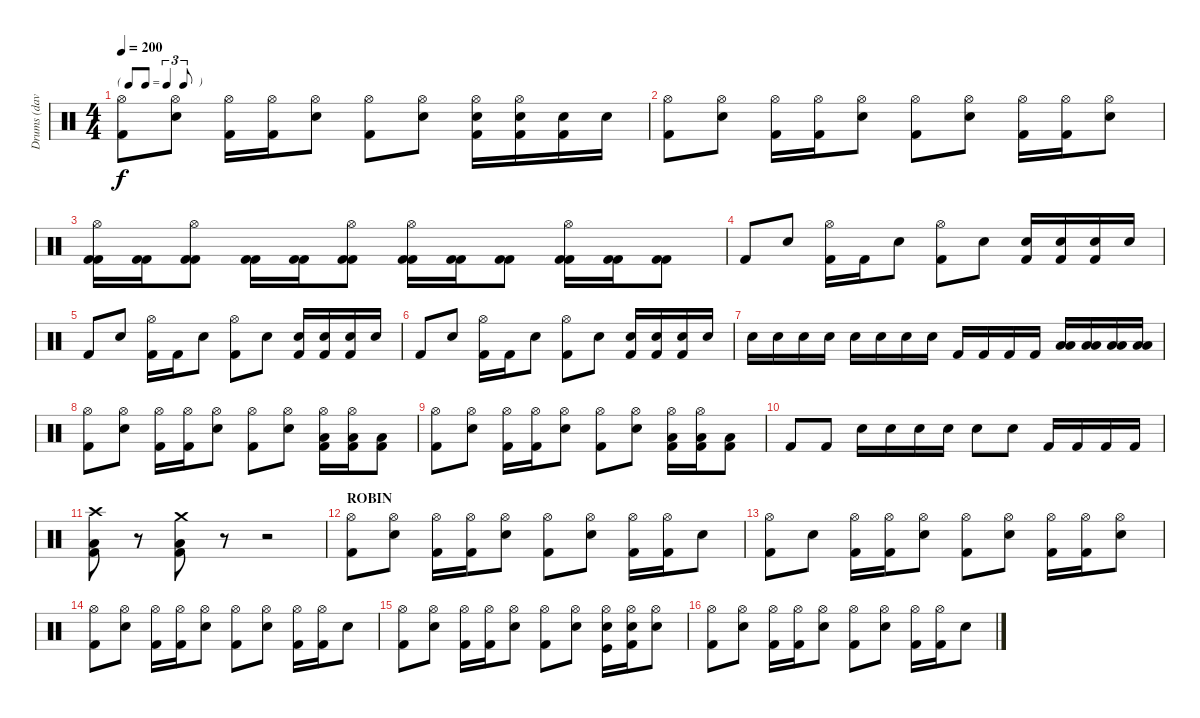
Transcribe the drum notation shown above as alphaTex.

\track ("Drums (dave)" "Drums (dav") {instrument percussion}
\staff {score}
\articulation defaults
\ts (4 4)
\tf triplet8th
\tempo 200
\clef neutral
\ks c
("Hi-Hat (open)" "Kick (hit) 2").8{dy f} ("Hi-Hat (open)" "Snare (hit) 2").8 ("Hi-Hat (open)" "Kick (hit) 2").16 ("Hi-Hat (open)" "Kick (hit) 2").16 ("Hi-Hat (open)" "Snare (hit) 2").8 ("Hi-Hat (open)" "Kick (hit) 2").8 ("Hi-Hat (open)" "Snare (hit) 2").8 ("Hi-Hat (open)" "Snare (hit) 2" "Kick (hit) 2").16 ("Hi-Hat (open)" "Snare (hit) 2" "Kick (hit) 2").16 ("Snare (hit) 2" "Kick (hit) 2").16 "Snare (hit) 2".16 |
("Hi-Hat (open)" "Kick (hit) 2").8 ("Hi-Hat (open)" "Snare (hit) 2").8 ("Hi-Hat (open)" "Kick (hit) 2").16 ("Hi-Hat (open)" "Kick (hit) 2").16 ("Hi-Hat (open)" "Snare (hit) 2").8 ("Hi-Hat (open)" "Kick (hit) 2").8 ("Hi-Hat (open)" "Snare (hit) 2").8 ("Hi-Hat (open)" "Kick (hit) 2").16 ("Hi-Hat (open)" "Kick (hit) 2").16 ("Hi-Hat (open)" "Snare (hit) 2").8 |
("Hi-Hat (open)" "Kick (hit) 2" "Kick (hit) 2").16 ("Kick (hit) 2" "Kick (hit) 2").16 ("Hi-Hat (open)" "Kick (hit) 2" "Kick (hit) 2").8 ("Kick (hit) 2" "Kick (hit) 2").16 ("Kick (hit) 2" "Kick (hit) 2").16 ("Hi-Hat (open)" "Kick (hit) 2" "Kick (hit) 2").8 ("Hi-Hat (open)" "Kick (hit) 2" "Kick (hit) 2").16 ("Kick (hit) 2" "Kick (hit) 2").16 ("Kick (hit) 2" "Kick (hit) 2").8 ("Hi-Hat (open)" "Kick (hit) 2" "Kick (hit) 2").16 ("Kick (hit) 2" "Kick (hit) 2").16 ("Kick (hit) 2" "Kick (hit) 2").8 |
"Kick (hit) 2".8 "Snare (hit) 2".8 ("Hi-Hat (open)" "Kick (hit) 2").16 "Kick (hit) 2".16 "Snare (hit) 2".8 ("Hi-Hat (open)" "Kick (hit) 2").8 "Snare (hit) 2".8 ("Snare (hit) 2" "Kick (hit) 2").16 ("Snare (hit) 2" "Kick (hit) 2").16 ("Snare (hit) 2" "Kick (hit) 2").16 "Snare (hit) 2".16 |
"Kick (hit) 2".8 "Snare (hit) 2".8 ("Hi-Hat (open)" "Kick (hit) 2").16 "Kick (hit) 2".16 "Snare (hit) 2".8 ("Hi-Hat (open)" "Kick (hit) 2").8 "Snare (hit) 2".8 ("Snare (hit) 2" "Kick (hit) 2").16 ("Snare (hit) 2" "Kick (hit) 2").16 ("Snare (hit) 2" "Kick (hit) 2").16 "Snare (hit) 2".16 |
"Kick (hit) 2".8 "Snare (hit) 2".8 ("Hi-Hat (open)" "Kick (hit) 2").16 "Kick (hit) 2".16 "Snare (hit) 2".8 ("Hi-Hat (open)" "Kick (hit) 2").8 "Snare (hit) 2".8 ("Snare (hit) 2" "Kick (hit) 2").16 ("Snare (hit) 2" "Kick (hit) 2").16 ("Snare (hit) 2" "Kick (hit) 2").16 "Snare (hit) 2".16 |
"Snare (hit) 2".16 "Snare (hit) 2".16 "Snare (hit) 2".16 "Snare (hit) 2".16 "Snare (hit) 2".16 "Snare (hit) 2".16 "Snare (hit) 2".16 "Snare (hit) 2".16 "Kick (hit) 2".16 "Kick (hit) 2".16 "Kick (hit) 2".16 "Kick (hit) 2".16 ("Low Floor Tom (hit)" "Low Floor Tom (hit)").16 ("Low Floor Tom (hit)" "Low Floor Tom (hit)").16 ("Low Floor Tom (hit)" "Low Floor Tom (hit)").16 ("Low Floor Tom (hit)" "Low Floor Tom (hit)").16 |
("Hi-Hat (open)" "Kick (hit) 2").8 ("Hi-Hat (open)" "Snare (hit) 2").8 ("Hi-Hat (open)" "Kick (hit) 2").16 ("Hi-Hat (open)" "Kick (hit) 2").16 ("Hi-Hat (open)" "Snare (hit) 2").8 ("Hi-Hat (open)" "Kick (hit) 2").8 ("Hi-Hat (open)" "Snare (hit) 2").8 ("Hi-Hat (open)" "Low Floor Tom (hit)" "Kick (hit) 2").16 ("Hi-Hat (open)" "Low Floor Tom (hit)" "Kick (hit) 2").16 ("Low Floor Tom (hit)" "Kick (hit) 2").8 |
("Hi-Hat (open)" "Kick (hit) 2").8 ("Hi-Hat (open)" "Snare (hit) 2").8 ("Hi-Hat (open)" "Kick (hit) 2").16 ("Hi-Hat (open)" "Kick (hit) 2").16 ("Hi-Hat (open)" "Snare (hit) 2").8 ("Hi-Hat (open)" "Kick (hit) 2").8 ("Hi-Hat (open)" "Snare (hit) 2").8 ("Hi-Hat (open)" "Low Floor Tom (hit)" "Kick (hit) 2").16 ("Hi-Hat (open)" "Low Floor Tom (hit)" "Kick (hit) 2").16 ("Low Floor Tom (hit)" "Kick (hit) 2").8 |
"Kick (hit) 2".8 "Kick (hit) 2".8 "Snare (hit) 2".16 "Snare (hit) 2".16 "Snare (hit) 2".16 "Snare (hit) 2".16 "Snare (hit) 2".8 "Snare (hit) 2".8 "Kick (hit) 2".16 "Kick (hit) 2".16 "Kick (hit) 2".16 "Kick (hit) 2".16 |
("Crash high (hit)" "Kick (hit) 2" "Low Floor Tom (hit)").8 r.8 ("Crash medium (hit)" "Kick (hit) 2" "Low Floor Tom (hit)").8 r.8 r.2 |
\section ("" "ROBIN")
("Hi-Hat (open)" "Kick (hit) 2").8 ("Hi-Hat (open)" "Snare (hit) 2").8 ("Hi-Hat (open)" "Kick (hit) 2").16 ("Hi-Hat (open)" "Kick (hit) 2").16 ("Hi-Hat (open)" "Snare (hit) 2").8 ("Hi-Hat (open)" "Kick (hit) 2").8 ("Hi-Hat (open)" "Snare (hit) 2").8 ("Hi-Hat (open)" "Kick (hit) 2").16 ("Hi-Hat (open)" "Kick (hit) 2").16 "Snare (hit) 2".8 |
("Hi-Hat (open)" "Kick (hit) 2").8 "Snare (hit) 2".8 ("Hi-Hat (open)" "Kick (hit) 2").16 ("Hi-Hat (open)" "Kick (hit) 2").16 ("Hi-Hat (open)" "Snare (hit) 2").8 ("Hi-Hat (open)" "Kick (hit) 2").8 ("Hi-Hat (open)" "Snare (hit) 2").8 ("Hi-Hat (open)" "Kick (hit) 2").16 ("Hi-Hat (open)" "Kick (hit) 2").16 ("Hi-Hat (open)" "Snare (hit) 2").8 |
("Hi-Hat (open)" "Kick (hit) 2").8 ("Hi-Hat (open)" "Snare (hit) 2").8 ("Hi-Hat (open)" "Kick (hit) 2").16 ("Hi-Hat (open)" "Kick (hit) 2").16 ("Hi-Hat (open)" "Snare (hit) 2").8 ("Hi-Hat (open)" "Kick (hit) 2").8 ("Hi-Hat (open)" "Snare (hit) 2").8 ("Hi-Hat (open)" "Kick (hit) 2").16 ("Hi-Hat (open)" "Kick (hit) 2").16 "Snare (hit) 2".8 |
("Hi-Hat (open)" "Kick (hit) 2").8 ("Hi-Hat (open)" "Snare (hit) 2").8 ("Hi-Hat (open)" "Kick (hit) 2").16 ("Hi-Hat (open)" "Kick (hit) 2").16 ("Hi-Hat (open)" "Snare (hit) 2").8 ("Hi-Hat (open)" "Kick (hit) 2").8 ("Hi-Hat (open)" "Snare (hit) 2").8 ("Hi-Hat (open)" "Snare (hit) 2" "Kick (hit)").16 ("Hi-Hat (open)" "Snare (hit) 2" "Kick (hit) 2").16 ("Hi-Hat (open)" "Snare (hit) 2").8 |
("Hi-Hat (open)" "Kick (hit) 2").8 ("Hi-Hat (open)" "Snare (hit) 2").8 ("Hi-Hat (open)" "Kick (hit) 2").16 ("Hi-Hat (open)" "Kick (hit) 2").16 ("Hi-Hat (open)" "Snare (hit) 2").8 ("Hi-Hat (open)" "Kick (hit) 2").8 ("Hi-Hat (open)" "Snare (hit) 2").8 ("Hi-Hat (open)" "Kick (hit) 2").16 ("Hi-Hat (open)" "Kick (hit) 2").16 "Snare (hit) 2".8
